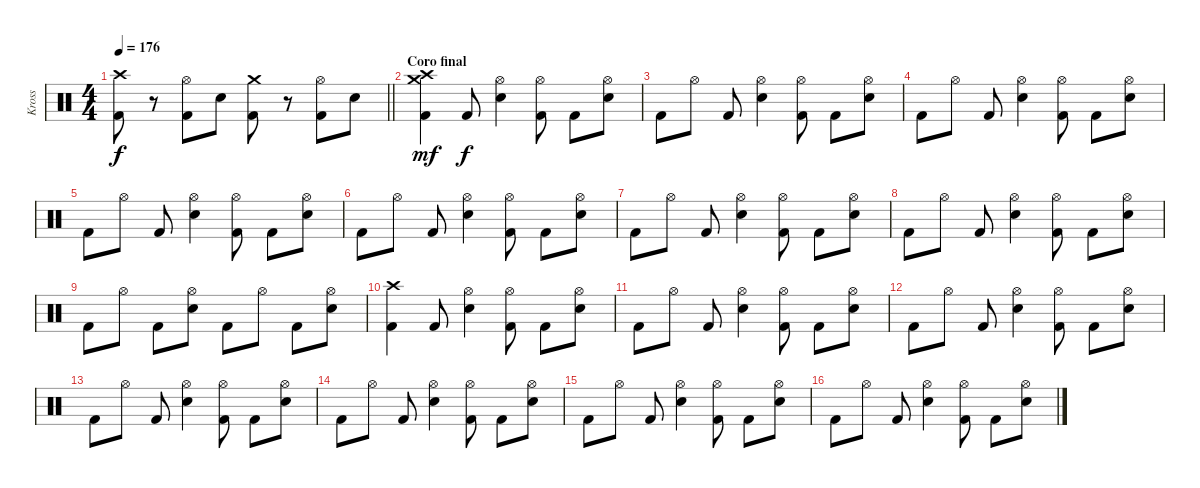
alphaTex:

\track ("Kross" "Kross") {instrument percussion}
\staff {score}
\articulation defaults
\ts (4 4)
\tempo 176
\clef neutral
\barLineRight lightlight
\ks c
("Crash high (hit)" "Kick (hit) 2").8{dy f} r.8 ("Hi-Hat (open)" "Kick (hit) 2").8 "Electric Snare (hit)".8 ("Crash medium (hit)" "Kick (hit) 2").8 r.8 ("Hi-Hat (open)" "Kick (hit) 2").8 "Electric Snare (hit)".8 |
\section ("" "Coro final")
("Crash medium (hit)" "Crash high (hit)" "Kick (hit) 2").4{dy mf} "Kick (hit) 2".8{dy f} ("Hi-Hat (open)" "Electric Snare (hit)").4 ("Hi-Hat (open)" "Kick (hit) 2").8 "Kick (hit) 2".8 ("Hi-Hat (open)" "Electric Snare (hit)").8 |
"Kick (hit) 2".8 "Hi-Hat (open)".8 "Kick (hit) 2".8 ("Hi-Hat (open)" "Electric Snare (hit)").4 ("Hi-Hat (open)" "Kick (hit) 2").8 "Kick (hit) 2".8 ("Hi-Hat (open)" "Electric Snare (hit)").8 |
"Kick (hit) 2".8 "Hi-Hat (open)".8 "Kick (hit) 2".8 ("Hi-Hat (open)" "Electric Snare (hit)").4 ("Hi-Hat (open)" "Kick (hit) 2").8 "Kick (hit) 2".8 ("Hi-Hat (open)" "Electric Snare (hit)").8 |
"Kick (hit) 2".8 "Hi-Hat (open)".8 "Kick (hit) 2".8 ("Hi-Hat (open)" "Electric Snare (hit)").4 ("Hi-Hat (open)" "Kick (hit) 2").8 "Kick (hit) 2".8 ("Hi-Hat (open)" "Electric Snare (hit)").8 |
"Kick (hit) 2".8 "Hi-Hat (open)".8 "Kick (hit) 2".8 ("Hi-Hat (open)" "Electric Snare (hit)").4 ("Hi-Hat (open)" "Kick (hit) 2").8 "Kick (hit) 2".8 ("Hi-Hat (open)" "Electric Snare (hit)").8 |
"Kick (hit) 2".8 "Hi-Hat (open)".8 "Kick (hit) 2".8 ("Hi-Hat (open)" "Electric Snare (hit)").4 ("Hi-Hat (open)" "Kick (hit) 2").8 "Kick (hit) 2".8 ("Hi-Hat (open)" "Electric Snare (hit)").8 |
"Kick (hit) 2".8 "Hi-Hat (open)".8 "Kick (hit) 2".8 ("Hi-Hat (open)" "Electric Snare (hit)").4 ("Hi-Hat (open)" "Kick (hit) 2").8 "Kick (hit) 2".8 ("Hi-Hat (open)" "Electric Snare (hit)").8 |
"Kick (hit) 2".8 "Hi-Hat (open)".8 "Kick (hit) 2".8 ("Hi-Hat (open)" "Electric Snare (hit)").8 "Kick (hit) 2".8 "Hi-Hat (open)".8 "Kick (hit) 2".8 ("Hi-Hat (open)" "Electric Snare (hit)").8 |
("Crash high (hit)" "Kick (hit) 2").4 "Kick (hit) 2".8 ("Hi-Hat (open)" "Electric Snare (hit)").4 ("Hi-Hat (open)" "Kick (hit) 2").8 "Kick (hit) 2".8 ("Hi-Hat (open)" "Electric Snare (hit)").8 |
"Kick (hit) 2".8 "Hi-Hat (open)".8 "Kick (hit) 2".8 ("Hi-Hat (open)" "Electric Snare (hit)").4 ("Hi-Hat (open)" "Kick (hit) 2").8 "Kick (hit) 2".8 ("Hi-Hat (open)" "Electric Snare (hit)").8 |
"Kick (hit) 2".8 "Hi-Hat (open)".8 "Kick (hit) 2".8 ("Hi-Hat (open)" "Electric Snare (hit)").4 ("Hi-Hat (open)" "Kick (hit) 2").8 "Kick (hit) 2".8 ("Hi-Hat (open)" "Electric Snare (hit)").8 |
"Kick (hit) 2".8 "Hi-Hat (open)".8 "Kick (hit) 2".8 ("Hi-Hat (open)" "Electric Snare (hit)").4 ("Hi-Hat (open)" "Kick (hit) 2").8 "Kick (hit) 2".8 ("Hi-Hat (open)" "Electric Snare (hit)").8 |
"Kick (hit) 2".8 "Hi-Hat (open)".8 "Kick (hit) 2".8 ("Hi-Hat (open)" "Electric Snare (hit)").4 ("Hi-Hat (open)" "Kick (hit) 2").8 "Kick (hit) 2".8 ("Hi-Hat (open)" "Electric Snare (hit)").8 |
"Kick (hit) 2".8 "Hi-Hat (open)".8 "Kick (hit) 2".8 ("Hi-Hat (open)" "Electric Snare (hit)").4 ("Hi-Hat (open)" "Kick (hit) 2").8 "Kick (hit) 2".8 ("Hi-Hat (open)" "Electric Snare (hit)").8 |
"Kick (hit) 2".8 "Hi-Hat (open)".8 "Kick (hit) 2".8 ("Hi-Hat (open)" "Electric Snare (hit)").4 ("Hi-Hat (open)" "Kick (hit) 2").8 "Kick (hit) 2".8 ("Hi-Hat (open)" "Electric Snare (hit)").8
